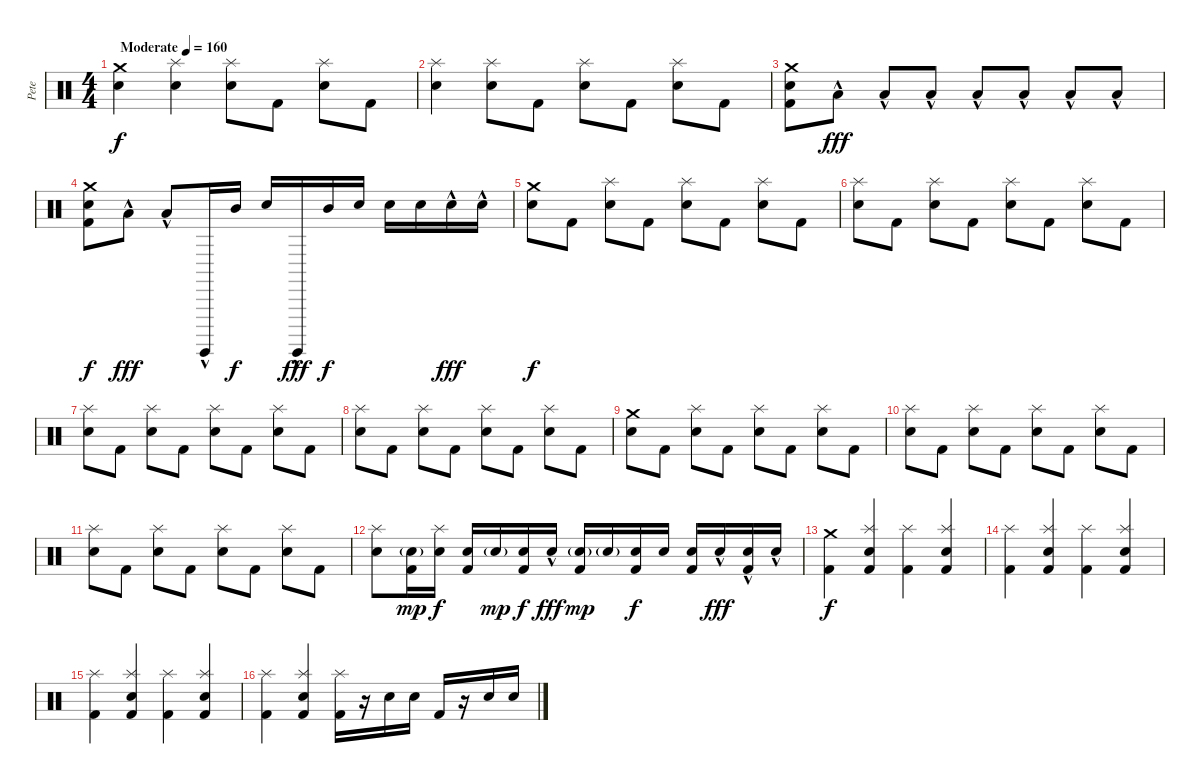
\track ("Pete" "Pete") {instrument percussion}
\staff {score}
\articulation defaults
\ts (4 4)
\tempo (160 "Moderate")
\clef neutral
\ks c
("Crash medium (hit)" "Electric Snare (hit)").4{dy f} ("Splash (hit)" "Electric Snare (hit)").4 ("Splash (hit)" "Electric Snare (hit)").8 "Kick (hit) 2".8 ("Splash (hit)" "Electric Snare (hit)").8 "Kick (hit) 2".8 |
("Splash (hit)" "Electric Snare (hit)").4 ("Splash (hit)" "Electric Snare (hit)").8 "Kick (hit) 2".8 ("Splash (hit)" "Electric Snare (hit)").8 "Kick (hit) 2".8 ("Splash (hit)" "Electric Snare (hit)").8 "Kick (hit) 2".8 |
("Crash medium (hit)" "Electric Snare (hit)" "Kick (hit) 2").8 "Low Tom (hit)"{hac}.8{dy fff} "Low Tom (hit)"{hac}.8 "Low Tom (hit)"{hac}.8 "Low Tom (hit)"{hac}.8 "Low Tom (hit)"{hac}.8 "Low Tom (hit)"{hac}.8 "Low Tom (hit)"{hac}.8 |
("Crash medium (hit)" "Electric Snare (hit)" "Kick (hit) 2").8{dy f} "Low Tom (hit)"{hac}.8{dy fff} "Low Tom (hit)"{hac}.8 "Surdo (hit)"{hac}.16 "Mid Tom (hit)".16{dy f} "Electric Snare (hit)".16 "Surdo (hit)"{hac}.16{dy fff} "Mid Tom (hit)".16{dy f} "Electric Snare (hit)".16 "Electric Snare (hit)".16 "Electric Snare (hit)".16 "Electric Snare (hit)"{hac}.16{dy fff} "Electric Snare (hit)"{hac}.16 |
("Crash medium (hit)" "Electric Snare (hit)").8{dy f} "Kick (hit) 2".8 ("Splash (hit)" "Electric Snare (hit)").8 "Kick (hit) 2".8 ("Splash (hit)" "Electric Snare (hit)").8 "Kick (hit) 2".8 ("Splash (hit)" "Electric Snare (hit)").8 "Kick (hit) 2".8 |
("Splash (hit)" "Electric Snare (hit)").8 "Kick (hit) 2".8 ("Splash (hit)" "Electric Snare (hit)").8 "Kick (hit) 2".8 ("Splash (hit)" "Electric Snare (hit)").8 "Kick (hit) 2".8 ("Splash (hit)" "Electric Snare (hit)").8 "Kick (hit) 2".8 |
("Splash (hit)" "Electric Snare (hit)").8 "Kick (hit) 2".8 ("Splash (hit)" "Electric Snare (hit)").8 "Kick (hit) 2".8 ("Splash (hit)" "Electric Snare (hit)").8 "Kick (hit) 2".8 ("Splash (hit)" "Electric Snare (hit)").8 "Kick (hit) 2".8 |
("Splash (hit)" "Electric Snare (hit)").8 "Kick (hit) 2".8 ("Splash (hit)" "Electric Snare (hit)").8 "Kick (hit) 2".8 ("Splash (hit)" "Electric Snare (hit)").8 "Kick (hit) 2".8 ("Splash (hit)" "Electric Snare (hit)").8 "Kick (hit) 2".8 |
("Crash medium (hit)" "Electric Snare (hit)").8 "Kick (hit) 2".8 ("Splash (hit)" "Electric Snare (hit)").8 "Kick (hit) 2".8 ("Splash (hit)" "Electric Snare (hit)").8 "Kick (hit) 2".8 ("Splash (hit)" "Electric Snare (hit)").8 "Kick (hit) 2".8 |
("Splash (hit)" "Electric Snare (hit)").8 "Kick (hit) 2".8 ("Splash (hit)" "Electric Snare (hit)").8 "Kick (hit) 2".8 ("Splash (hit)" "Electric Snare (hit)").8 "Kick (hit) 2".8 ("Splash (hit)" "Electric Snare (hit)").8 "Kick (hit) 2".8 |
("Splash (hit)" "Electric Snare (hit)").8 "Kick (hit) 2".8 ("Splash (hit)" "Electric Snare (hit)").8 "Kick (hit) 2".8 ("Splash (hit)" "Electric Snare (hit)").8 "Kick (hit) 2".8 ("Splash (hit)" "Electric Snare (hit)").8 "Kick (hit) 2".8 |
("Splash (hit)" "Electric Snare (hit)").8 ("Electric Snare (hit)"{g} "Kick (hit) 2").16{dy mp} ("Splash (hit)" "Electric Snare (hit)").16{dy f} ("Electric Snare (hit)" "Kick (hit) 2").16 "Electric Snare (hit)"{g}.16{dy mp} ("Electric Snare (hit)" "Kick (hit) 2").16{dy f} "Electric Snare (hit)"{hac}.16{dy fff} ("Electric Snare (hit)"{g} "Kick (hit) 2").16{dy mp} "Electric Snare (hit)"{g}.16 ("Electric Snare (hit)" "Kick (hit) 2").16{dy f} "Electric Snare (hit)".16 ("Electric Snare (hit)" "Kick (hit) 2").16 "Electric Snare (hit)"{hac}.16{dy fff} ("Electric Snare (hit)"{hac} "Kick (hit) 2").16 "Electric Snare (hit)"{hac}.16 |
("Crash medium (hit)" "Kick (hit) 2").4{dy f} ("Splash (hit)" "Electric Snare (hit)" "Kick (hit) 2").4 ("Splash (hit)" "Kick (hit) 2").4 ("Splash (hit)" "Electric Snare (hit)" "Kick (hit) 2").4 |
("Splash (hit)" "Kick (hit) 2").4 ("Splash (hit)" "Electric Snare (hit)" "Kick (hit) 2").4 ("Splash (hit)" "Kick (hit) 2").4 ("Splash (hit)" "Electric Snare (hit)" "Kick (hit) 2").4 |
("Splash (hit)" "Kick (hit) 2").4 ("Splash (hit)" "Electric Snare (hit)" "Kick (hit) 2").4 ("Splash (hit)" "Kick (hit) 2").4 ("Splash (hit)" "Electric Snare (hit)" "Kick (hit) 2").4 |
("Splash (hit)" "Kick (hit) 2").4 ("Splash (hit)" "Electric Snare (hit)" "Kick (hit) 2").4 ("Splash (hit)" "Kick (hit) 2").16 r.16 "Electric Snare (hit)".16 "Electric Snare (hit)".16 "Kick (hit) 2".16 r.16 "Electric Snare (hit)".16 "Electric Snare (hit)".16
